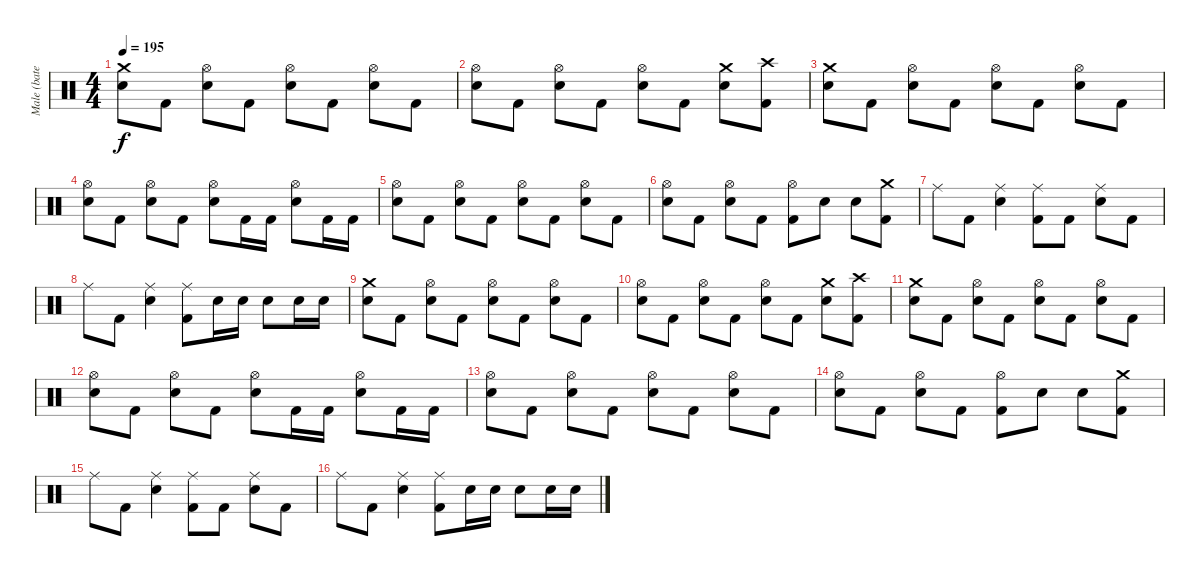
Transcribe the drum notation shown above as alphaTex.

\track ("Male (bateria)" "Male (bate") {instrument percussion}
\staff {score}
\articulation defaults
\ts (4 4)
\tempo 195
\clef neutral
\ks c
("Electric Snare (hit)" "Crash medium (hit)").8{dy f} "Kick (hit) 2".8 ("Electric Snare (hit)" "Hi-Hat (open)").8 "Kick (hit) 2".8 ("Electric Snare (hit)" "Hi-Hat (open)").8 "Kick (hit) 2".8 ("Electric Snare (hit)" "Hi-Hat (open)").8 "Kick (hit) 2".8 |
("Electric Snare (hit)" "Hi-Hat (open)").8 "Kick (hit) 2".8 ("Electric Snare (hit)" "Hi-Hat (open)").8 "Kick (hit) 2".8 ("Electric Snare (hit)" "Hi-Hat (open)").8 "Kick (hit) 2".8 ("Electric Snare (hit)" "Crash medium (hit)").8 ("Kick (hit) 2" "Crash high (hit)").8 |
("Electric Snare (hit)" "Crash medium (hit)").8 "Kick (hit) 2".8 ("Electric Snare (hit)" "Hi-Hat (open)").8 "Kick (hit) 2".8 ("Electric Snare (hit)" "Hi-Hat (open)").8 "Kick (hit) 2".8 ("Electric Snare (hit)" "Hi-Hat (open)").8 "Kick (hit) 2".8 |
("Electric Snare (hit)" "Hi-Hat (open)").8 "Kick (hit) 2".8 ("Electric Snare (hit)" "Hi-Hat (open)").8 "Kick (hit) 2".8 ("Electric Snare (hit)" "Hi-Hat (open)").8 "Kick (hit) 2".16 "Kick (hit) 2".16 ("Electric Snare (hit)" "Hi-Hat (open)").8 "Kick (hit) 2".16 "Kick (hit) 2".16 |
("Electric Snare (hit)" "Hi-Hat (open)").8 "Kick (hit) 2".8 ("Electric Snare (hit)" "Hi-Hat (open)").8 "Kick (hit) 2".8 ("Electric Snare (hit)" "Hi-Hat (open)").8 "Kick (hit) 2".8 ("Electric Snare (hit)" "Hi-Hat (open)").8 "Kick (hit) 2".8 |
("Electric Snare (hit)" "Hi-Hat (open)").8 "Kick (hit) 2".8 ("Electric Snare (hit)" "Hi-Hat (open)").8 "Kick (hit) 2".8 ("Kick (hit) 2" "Hi-Hat (open)").8 "Electric Snare (hit)".8 "Electric Snare (hit)".8 ("Kick (hit) 2" "Crash medium (hit)").8 |
"Ride (middle)".8 "Kick (hit) 2".8 ("Electric Snare (hit)" "Ride (middle)").4 ("Kick (hit) 2" "Ride (middle)").8 "Kick (hit) 2".8 ("Electric Snare (hit)" "Ride (middle)").8 "Kick (hit) 2".8 |
"Ride (middle)".8 "Kick (hit) 2".8 ("Electric Snare (hit)" "Ride (middle)").4 ("Kick (hit) 2" "Ride (middle)").8 "Electric Snare (hit)".16 "Electric Snare (hit)".16 "Electric Snare (hit)".8 "Electric Snare (hit)".16 "Electric Snare (hit)".16 |
("Electric Snare (hit)" "Crash medium (hit)").8 "Kick (hit) 2".8 ("Electric Snare (hit)" "Hi-Hat (open)").8 "Kick (hit) 2".8 ("Electric Snare (hit)" "Hi-Hat (open)").8 "Kick (hit) 2".8 ("Electric Snare (hit)" "Hi-Hat (open)").8 "Kick (hit) 2".8 |
("Electric Snare (hit)" "Hi-Hat (open)").8 "Kick (hit) 2".8 ("Electric Snare (hit)" "Hi-Hat (open)").8 "Kick (hit) 2".8 ("Electric Snare (hit)" "Hi-Hat (open)").8 "Kick (hit) 2".8 ("Electric Snare (hit)" "Crash medium (hit)").8 ("Kick (hit) 2" "Crash high (hit)").8 |
("Electric Snare (hit)" "Crash medium (hit)").8 "Kick (hit) 2".8 ("Electric Snare (hit)" "Hi-Hat (open)").8 "Kick (hit) 2".8 ("Electric Snare (hit)" "Hi-Hat (open)").8 "Kick (hit) 2".8 ("Electric Snare (hit)" "Hi-Hat (open)").8 "Kick (hit) 2".8 |
("Electric Snare (hit)" "Hi-Hat (open)").8 "Kick (hit) 2".8 ("Electric Snare (hit)" "Hi-Hat (open)").8 "Kick (hit) 2".8 ("Electric Snare (hit)" "Hi-Hat (open)").8 "Kick (hit) 2".16 "Kick (hit) 2".16 ("Electric Snare (hit)" "Hi-Hat (open)").8 "Kick (hit) 2".16 "Kick (hit) 2".16 |
("Electric Snare (hit)" "Hi-Hat (open)").8 "Kick (hit) 2".8 ("Electric Snare (hit)" "Hi-Hat (open)").8 "Kick (hit) 2".8 ("Electric Snare (hit)" "Hi-Hat (open)").8 "Kick (hit) 2".8 ("Electric Snare (hit)" "Hi-Hat (open)").8 "Kick (hit) 2".8 |
("Electric Snare (hit)" "Hi-Hat (open)").8 "Kick (hit) 2".8 ("Electric Snare (hit)" "Hi-Hat (open)").8 "Kick (hit) 2".8 ("Kick (hit) 2" "Hi-Hat (open)").8 "Electric Snare (hit)".8 "Electric Snare (hit)".8 ("Kick (hit) 2" "Crash medium (hit)").8 |
"Ride (middle)".8 "Kick (hit) 2".8 ("Electric Snare (hit)" "Ride (middle)").4 ("Kick (hit) 2" "Ride (middle)").8 "Kick (hit) 2".8 ("Electric Snare (hit)" "Ride (middle)").8 "Kick (hit) 2".8 |
"Ride (middle)".8 "Kick (hit) 2".8 ("Electric Snare (hit)" "Ride (middle)").4 ("Kick (hit) 2" "Ride (middle)").8 "Electric Snare (hit)".16 "Electric Snare (hit)".16 "Electric Snare (hit)".8 "Electric Snare (hit)".16 "Electric Snare (hit)".16
